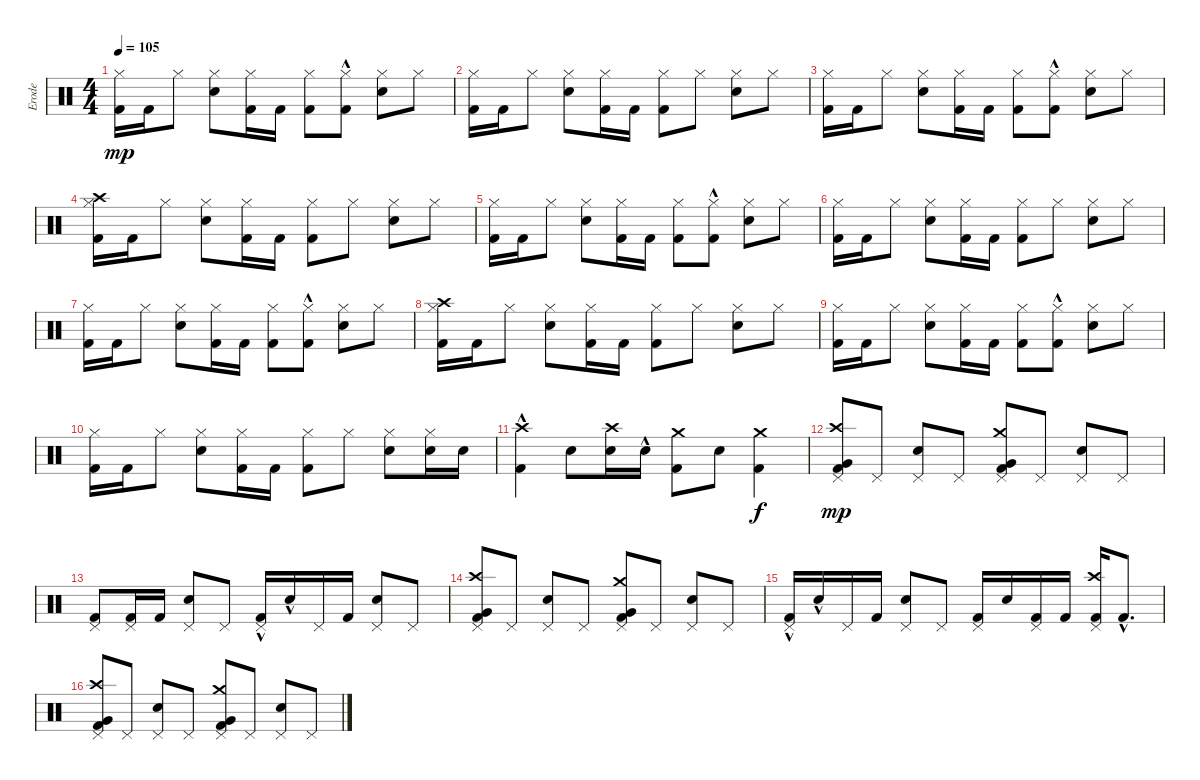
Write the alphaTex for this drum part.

\track ("Erode" "Erode") {instrument percussion}
\staff {score}
\articulation defaults
\ts (4 4)
\tempo 105
\clef neutral
\ks c
("Kick (hit) 2" "Hi-Hat (closed)").16{dy mp} "Kick (hit) 2".16 "Hi-Hat (closed)".8 ("Electric Snare (hit)" "Hi-Hat (closed)").8 ("Kick (hit) 2" "Hi-Hat (closed)").16 "Kick (hit) 2".16 ("Kick (hit) 2" "Hi-Hat (closed)").8 ("Kick (hit) 2"{hac} "Hi-Hat (closed)").8 ("Electric Snare (hit)" "Hi-Hat (closed)").8 "Hi-Hat (closed)".8 |
("Kick (hit) 2" "Hi-Hat (closed)").16 "Kick (hit) 2".16 "Hi-Hat (closed)".8 ("Electric Snare (hit)" "Hi-Hat (closed)").8 ("Kick (hit) 2" "Hi-Hat (closed)").16 "Kick (hit) 2".16 ("Kick (hit) 2" "Hi-Hat (closed)").8 "Hi-Hat (closed)".8 ("Electric Snare (hit)" "Hi-Hat (closed)").8 "Hi-Hat (closed)".8 |
("Kick (hit) 2" "Hi-Hat (closed)").16 "Kick (hit) 2".16 "Hi-Hat (closed)".8 ("Electric Snare (hit)" "Hi-Hat (closed)").8 ("Kick (hit) 2" "Hi-Hat (closed)").16 "Kick (hit) 2".16 ("Kick (hit) 2" "Hi-Hat (closed)").8 ("Kick (hit) 2"{hac} "Hi-Hat (closed)").8 ("Electric Snare (hit)" "Hi-Hat (closed)").8 "Hi-Hat (closed)".8 |
("Kick (hit) 2" "Hi-Hat (closed)" "Crash high (hit)").16 "Kick (hit) 2".16 "Hi-Hat (closed)".8 ("Electric Snare (hit)" "Hi-Hat (closed)").8 ("Kick (hit) 2" "Hi-Hat (closed)").16 "Kick (hit) 2".16 ("Kick (hit) 2" "Hi-Hat (closed)").8 "Hi-Hat (closed)".8 ("Electric Snare (hit)" "Hi-Hat (closed)").8 "Hi-Hat (closed)".8 |
("Kick (hit) 2" "Hi-Hat (closed)").16 "Kick (hit) 2".16 "Hi-Hat (closed)".8 ("Electric Snare (hit)" "Hi-Hat (closed)").8 ("Kick (hit) 2" "Hi-Hat (closed)").16 "Kick (hit) 2".16 ("Kick (hit) 2" "Hi-Hat (closed)").8 ("Kick (hit) 2"{hac} "Hi-Hat (closed)").8 ("Electric Snare (hit)" "Hi-Hat (closed)").8 "Hi-Hat (closed)".8 |
("Kick (hit) 2" "Hi-Hat (closed)").16 "Kick (hit) 2".16 "Hi-Hat (closed)".8 ("Electric Snare (hit)" "Hi-Hat (closed)").8 ("Kick (hit) 2" "Hi-Hat (closed)").16 "Kick (hit) 2".16 ("Kick (hit) 2" "Hi-Hat (closed)").8 "Hi-Hat (closed)".8 ("Electric Snare (hit)" "Hi-Hat (closed)").8 "Hi-Hat (closed)".8 |
("Kick (hit) 2" "Hi-Hat (closed)").16 "Kick (hit) 2".16 "Hi-Hat (closed)".8 ("Electric Snare (hit)" "Hi-Hat (closed)").8 ("Kick (hit) 2" "Hi-Hat (closed)").16 "Kick (hit) 2".16 ("Kick (hit) 2" "Hi-Hat (closed)").8 ("Kick (hit) 2"{hac} "Hi-Hat (closed)").8 ("Electric Snare (hit)" "Hi-Hat (closed)").8 "Hi-Hat (closed)".8 |
("Kick (hit) 2" "Hi-Hat (closed)" "Crash high (hit)").16 "Kick (hit) 2".16 "Hi-Hat (closed)".8 ("Electric Snare (hit)" "Hi-Hat (closed)").8 ("Kick (hit) 2" "Hi-Hat (closed)").16 "Kick (hit) 2".16 ("Kick (hit) 2" "Hi-Hat (closed)").8 "Hi-Hat (closed)".8 ("Electric Snare (hit)" "Hi-Hat (closed)").8 "Hi-Hat (closed)".8 |
("Kick (hit) 2" "Hi-Hat (closed)").16 "Kick (hit) 2".16 "Hi-Hat (closed)".8 ("Electric Snare (hit)" "Hi-Hat (closed)").8 ("Kick (hit) 2" "Hi-Hat (closed)").16 "Kick (hit) 2".16 ("Kick (hit) 2" "Hi-Hat (closed)").8 ("Kick (hit) 2"{hac} "Hi-Hat (closed)").8 ("Electric Snare (hit)" "Hi-Hat (closed)").8 "Hi-Hat (closed)".8 |
("Kick (hit) 2" "Hi-Hat (closed)").16 "Kick (hit) 2".16 "Hi-Hat (closed)".8 ("Electric Snare (hit)" "Hi-Hat (closed)").8 ("Kick (hit) 2" "Hi-Hat (closed)").16 "Kick (hit) 2".16 ("Kick (hit) 2" "Hi-Hat (closed)").8 "Hi-Hat (closed)".8 ("Electric Snare (hit)" "Hi-Hat (closed)").8 ("Electric Snare (hit)" "Hi-Hat (closed)").16 "Electric Snare (hit)".16 |
("Kick (hit) 2" "Crash high (hit)"{hac}).4 "Electric Snare (hit)".8 ("Electric Snare (hit)" "Crash high (hit)").16 "Electric Snare (hit)"{hac}.16 ("Kick (hit) 2" "Crash medium (hit)").8 "Electric Snare (hit)".8 ("Kick (hit) 2" "Crash medium (hit)").4{dy f} |
("Kick (hit) 2" "Very Low Tom (hit)" "Pedal Hi-Hat (hit)" "Crash high (hit)").8{dy mp} "Pedal Hi-Hat (hit)".8 ("Snare (hit) 2" "Pedal Hi-Hat (hit)").8 "Pedal Hi-Hat (hit)".8 ("Kick (hit) 2" "Very Low Tom (hit)" "Pedal Hi-Hat (hit)" "Crash medium (hit)").8 "Pedal Hi-Hat (hit)".8 ("Snare (hit) 2" "Pedal Hi-Hat (hit)").8 "Pedal Hi-Hat (hit)".8 |
("Kick (hit) 2" "Pedal Hi-Hat (hit)").8 ("Kick (hit) 2" "Pedal Hi-Hat (hit)").16 "Kick (hit) 2".16 ("Snare (hit) 2" "Pedal Hi-Hat (hit)").8 "Pedal Hi-Hat (hit)".8 ("Kick (hit) 2"{hac} "Pedal Hi-Hat (hit)").16 "Snare (hit) 2"{hac}.16 "Pedal Hi-Hat (hit)".16 "Kick (hit) 2".16 ("Snare (hit) 2" "Pedal Hi-Hat (hit)").8 "Pedal Hi-Hat (hit)".8 |
("Kick (hit) 2" "Very Low Tom (hit)" "Pedal Hi-Hat (hit)" "Crash high (hit)").8 "Pedal Hi-Hat (hit)".8 ("Snare (hit) 2" "Pedal Hi-Hat (hit)").8 "Pedal Hi-Hat (hit)".8 ("Kick (hit) 2" "Very Low Tom (hit)" "Pedal Hi-Hat (hit)" "Crash medium (hit)").8 "Pedal Hi-Hat (hit)".8 ("Snare (hit) 2" "Pedal Hi-Hat (hit)").8 "Pedal Hi-Hat (hit)".8 |
("Kick (hit) 2"{hac} "Pedal Hi-Hat (hit)").16 "Snare (hit) 2"{hac}.16 "Pedal Hi-Hat (hit)".16 "Kick (hit) 2".16 ("Snare (hit) 2" "Pedal Hi-Hat (hit)").8 "Pedal Hi-Hat (hit)".8 ("Kick (hit) 2" "Pedal Hi-Hat (hit)").16 "Snare (hit) 2".16 ("Kick (hit) 2" "Pedal Hi-Hat (hit)").16 "Kick (hit) 2".16 ("Kick (hit) 2" "Pedal Hi-Hat (hit)" "Crash high (hit)").16 "Kick (hit) 2"{hac}.8{d} |
("Kick (hit) 2" "Very Low Tom (hit)" "Pedal Hi-Hat (hit)" "Crash high (hit)").8 "Pedal Hi-Hat (hit)".8 ("Snare (hit) 2" "Pedal Hi-Hat (hit)").8 "Pedal Hi-Hat (hit)".8 ("Kick (hit) 2" "Very Low Tom (hit)" "Pedal Hi-Hat (hit)" "Crash medium (hit)").8 "Pedal Hi-Hat (hit)".8 ("Snare (hit) 2" "Pedal Hi-Hat (hit)").8 "Pedal Hi-Hat (hit)".8
